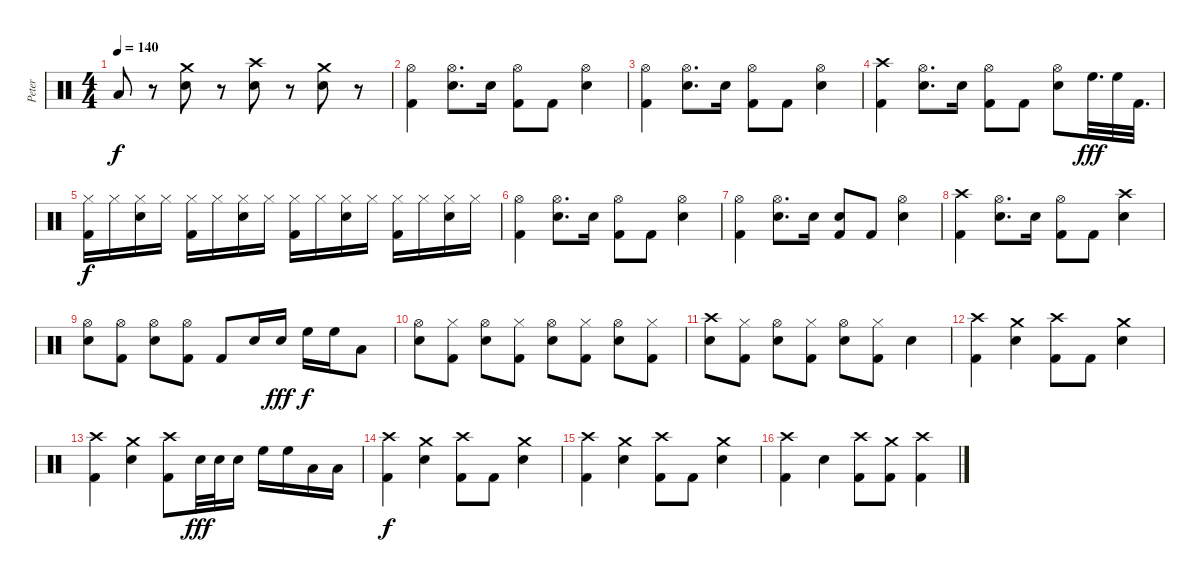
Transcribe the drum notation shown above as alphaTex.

\track ("Peter" "Peter") {instrument percussion}
\staff {score}
\articulation defaults
\ts (4 4)
\tempo 140
\clef neutral
\ks c "Low Floor Tom (hit)".8{dy f}
r.8 ("Crash medium (hit)" "Electric Snare (hit)").8 r.8 ("Crash high (hit)" "Electric Snare (hit)").8 r.8 ("Crash medium (hit)" "Electric Snare (hit)").8 r.8 |
("Hi-Hat (open)" "Kick (hit) 2").4 ("Hi-Hat (open)" "Electric Snare (hit)").8{d} "Snare (hit) 2".16 ("Hi-Hat (open)" "Kick (hit) 2").8 "Kick (hit) 2".8 ("Hi-Hat (open)" "Electric Snare (hit)").4 |
("Hi-Hat (open)" "Kick (hit) 2").4 ("Hi-Hat (open)" "Electric Snare (hit)").8{d} "Snare (hit) 2".16 ("Hi-Hat (open)" "Kick (hit) 2").8 "Kick (hit) 2".8 ("Hi-Hat (open)" "Electric Snare (hit)").4 |
("Crash high (hit)" "Kick (hit) 2").4 ("Hi-Hat (open)" "Electric Snare (hit)").8{d} "Snare (hit) 2".16 ("Hi-Hat (open)" "Kick (hit) 2").8 "Kick (hit) 2".8 ("Hi-Hat (open)" "Electric Snare (hit)").8 "High Floor Tom (hit)".32{d dy fff} "High Floor Tom (hit)".32 "Kick (hit) 2".32{d} |
("Hi-Hat (closed)" "Kick (hit) 2").16{dy f} "Hi-Hat (closed)".16 ("Hi-Hat (closed)" "Electric Snare (hit)").16 "Hi-Hat (closed)".16 ("Hi-Hat (closed)" "Kick (hit) 2").16 "Hi-Hat (closed)".16 ("Hi-Hat (closed)" "Electric Snare (hit)").16 "Hi-Hat (closed)".16 ("Hi-Hat (closed)" "Kick (hit) 2").16 "Hi-Hat (closed)".16 ("Hi-Hat (closed)" "Electric Snare (hit)").16 "Hi-Hat (closed)".16 ("Hi-Hat (closed)" "Kick (hit) 2").16 "Hi-Hat (closed)".16 ("Hi-Hat (closed)" "Electric Snare (hit)").16 "Hi-Hat (closed)".16 |
("Hi-Hat (open)" "Kick (hit) 2").4 ("Hi-Hat (open)" "Electric Snare (hit)").8{d} "Snare (hit) 2".16 ("Hi-Hat (open)" "Kick (hit) 2").8 "Kick (hit) 2".8 ("Hi-Hat (open)" "Electric Snare (hit)").4 |
("Hi-Hat (open)" "Kick (hit) 2").4 ("Hi-Hat (open)" "Electric Snare (hit)").8{d} "Snare (hit) 2".16 ("Snare (hit) 2" "Kick (hit) 2").8 "Kick (hit) 2".8 ("Hi-Hat (open)" "Electric Snare (hit)").4 |
("Crash high (hit)" "Kick (hit) 2").4 ("Hi-Hat (open)" "Electric Snare (hit)").8{d} "Snare (hit) 2".16 ("Hi-Hat (open)" "Kick (hit) 2").8 "Kick (hit) 2".8 ("Crash high (hit)" "Electric Snare (hit)").4 |
("Hi-Hat (open)" "Electric Snare (hit)").8 ("Hi-Hat (open)" "Kick (hit) 2").8 ("Hi-Hat (open)" "Electric Snare (hit)").8 ("Hi-Hat (open)" "Kick (hit) 2").8 "Kick (hit) 2".8 "Snare (hit) 2".16 "Snare (hit) 2".16{dy fff} "High Floor Tom (hit)".16{dy f} "High Floor Tom (hit)".16 "Low Floor Tom (hit)".8 |
("Hi-Hat (open)" "Electric Snare (hit)").8 ("Hi-Hat (closed)" "Kick (hit) 2").8 ("Hi-Hat (open)" "Electric Snare (hit)").8 ("Hi-Hat (closed)" "Kick (hit) 2").8 ("Hi-Hat (open)" "Electric Snare (hit)").8 ("Hi-Hat (closed)" "Kick (hit) 2").8 ("Hi-Hat (open)" "Electric Snare (hit)").8 ("Hi-Hat (closed)" "Kick (hit) 2").8 |
("Crash high (hit)" "Electric Snare (hit)").8 ("Hi-Hat (closed)" "Kick (hit) 2").8 ("Hi-Hat (open)" "Electric Snare (hit)").8 ("Hi-Hat (closed)" "Kick (hit) 2").8 ("Hi-Hat (open)" "Electric Snare (hit)").8 ("Hi-Hat (closed)" "Kick (hit) 2").8 "Electric Snare (hit)".4 |
("Crash high (hit)" "Kick (hit) 2").4 ("Crash medium (hit)" "Electric Snare (hit)").4 ("Crash high (hit)" "Kick (hit) 2").8 "Kick (hit) 2".8 ("Crash medium (hit)" "Electric Snare (hit)").4 |
("Crash high (hit)" "Kick (hit) 2").4 ("Crash medium (hit)" "Electric Snare (hit)").4 ("Crash high (hit)" "Kick (hit) 2").8 "Electric Snare (hit)".32{dy fff} "Electric Snare (hit)".32 "Electric Snare (hit)".16 "High Floor Tom (hit)".16 "High Floor Tom (hit)".16 "Low Tom (hit)".16 "Low Tom (hit)".16 |
("Crash high (hit)" "Kick (hit) 2").4{dy f} ("Crash medium (hit)" "Electric Snare (hit)").4 ("Crash high (hit)" "Kick (hit) 2").8 "Kick (hit) 2".8 ("Crash medium (hit)" "Electric Snare (hit)").4 |
("Crash high (hit)" "Kick (hit) 2").4 ("Crash medium (hit)" "Electric Snare (hit)").4 ("Crash high (hit)" "Kick (hit) 2").8 "Kick (hit) 2".8 ("Crash medium (hit)" "Electric Snare (hit)").4 |
("Crash high (hit)" "Kick (hit) 2").4 "Electric Snare (hit)".4 ("Crash high (hit)" "Kick (hit) 2").8 ("Crash medium (hit)" "Kick (hit) 2").8 ("Crash high (hit)" "Kick (hit) 2").4
